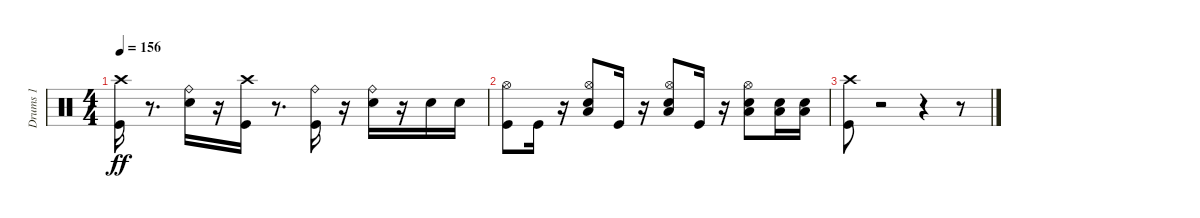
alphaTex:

\track ("Drums 1" "Drums 1") {instrument percussion}
\staff {score}
\articulation defaults
\ts (4 4)
\tempo 156
\clef neutral
\ks c
("Kick (hit)" "Crash high (hit)").16{dy ff} r.8{d} ("Ride (bell)" "Electric Snare (hit)").16 r.16 ("Crash high (hit)" "Kick (hit)").16 r.8{d} ("Ride (bell)" "Kick (hit)").16 r.16 ("Electric Snare (hit)" "Ride (bell)").16 r.16 "Electric Snare (hit)".16 "Electric Snare (hit)".16 |
("Hi-Hat (open)" "Kick (hit)").8 "Kick (hit)".16 r.16 ("Hi-Hat (open)" "Low Tom (hit)" "Electric Snare (hit)").8 "Kick (hit)".16 r.16 ("Hi-Hat (open)" "Low Tom (hit)" "Electric Snare (hit)").8 "Kick (hit)".16 r.16 ("Hi-Hat (open)" "Electric Snare (hit)" "Low Tom (hit)").8 ("Low Tom (hit)" "Electric Snare (hit)").16 ("Electric Snare (hit)" "Low Tom (hit)").16 |
("Crash high (hit)" "Kick (hit)").8 r.2 r.4 r.8
